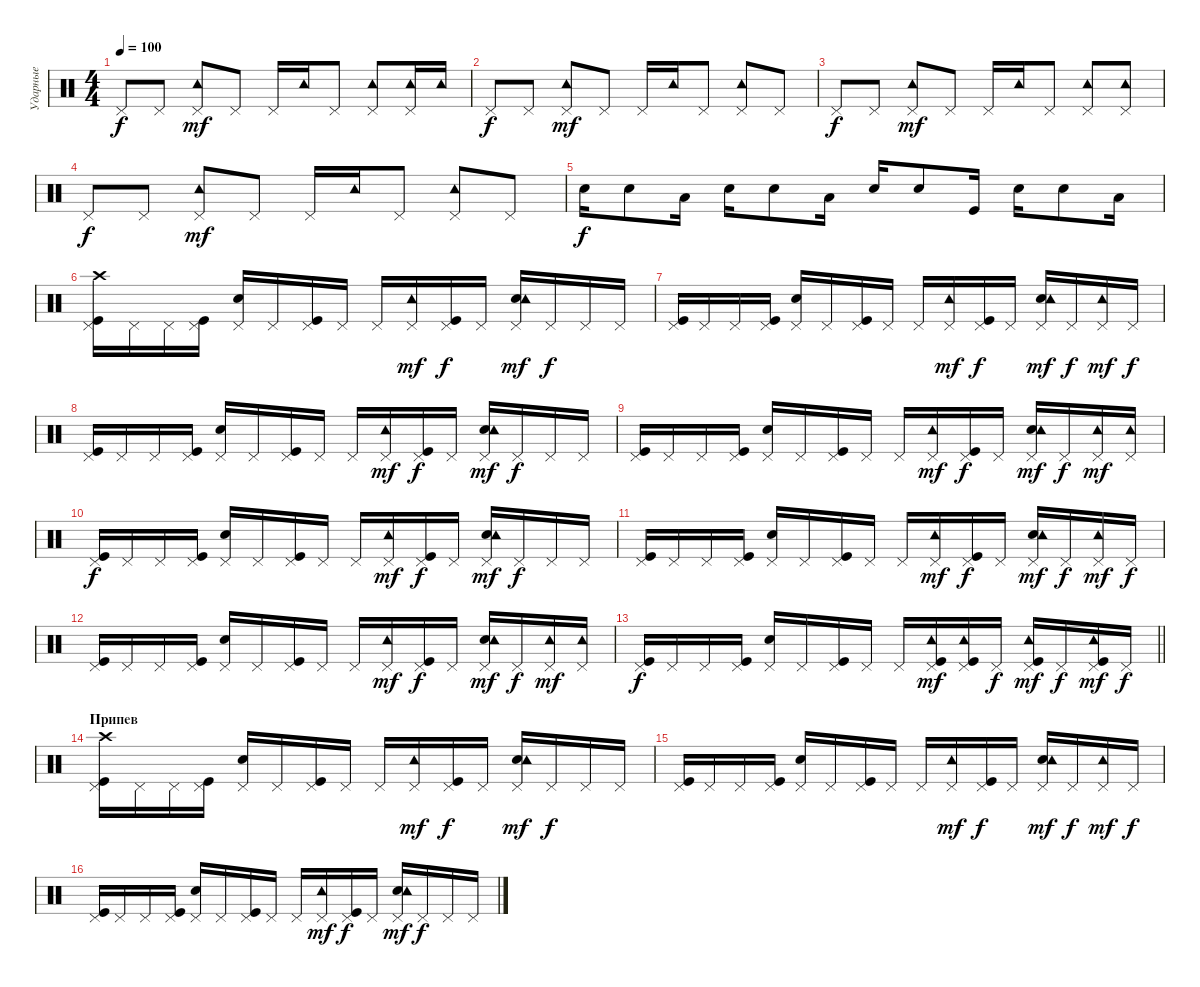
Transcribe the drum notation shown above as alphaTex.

\track ("Ударные" "Ударные") {instrument percussion}
\staff {score}
\articulation defaults
\ts (4 4)
\tempo 100
\clef neutral
\ks c "Pedal Hi-Hat (hit)".8{dy f} "Pedal Hi-Hat (hit)".8
("Tambourine (hit)" "Pedal Hi-Hat (hit)").8{dy mf} "Pedal Hi-Hat (hit)".8 "Pedal Hi-Hat (hit)".16 "Tambourine (hit)".16 "Pedal Hi-Hat (hit)".8 ("Tambourine (hit)" "Pedal Hi-Hat (hit)").8 ("Tambourine (hit)" "Pedal Hi-Hat (hit)").16 "Tambourine (hit)".16 |
"Pedal Hi-Hat (hit)".8{dy f} "Pedal Hi-Hat (hit)".8 ("Tambourine (hit)" "Pedal Hi-Hat (hit)").8{dy mf} "Pedal Hi-Hat (hit)".8 "Pedal Hi-Hat (hit)".16 "Tambourine (hit)".16 "Pedal Hi-Hat (hit)".8 ("Tambourine (hit)" "Pedal Hi-Hat (hit)").8 "Pedal Hi-Hat (hit)".8 |
"Pedal Hi-Hat (hit)".8{dy f} "Pedal Hi-Hat (hit)".8 ("Tambourine (hit)" "Pedal Hi-Hat (hit)").8{dy mf} "Pedal Hi-Hat (hit)".8 "Pedal Hi-Hat (hit)".16 "Tambourine (hit)".16 "Pedal Hi-Hat (hit)".8 ("Tambourine (hit)" "Pedal Hi-Hat (hit)").8 ("Tambourine (hit)" "Pedal Hi-Hat (hit)").8 |
"Pedal Hi-Hat (hit)".8{dy f} "Pedal Hi-Hat (hit)".8 ("Tambourine (hit)" "Pedal Hi-Hat (hit)").8{dy mf} "Pedal Hi-Hat (hit)".8 "Pedal Hi-Hat (hit)".16 "Tambourine (hit)".16 "Pedal Hi-Hat (hit)".8 ("Tambourine (hit)" "Pedal Hi-Hat (hit)").8 "Pedal Hi-Hat (hit)".8 |
"Electric Snare (hit)".16{dy f} "Electric Snare (hit)".8 "Low Tom (hit)".16 "Electric Snare (hit)".16 "Electric Snare (hit)".8 "Low Tom (hit)".16 "Electric Snare (hit)".16 "Electric Snare (hit)".8 "Kick (hit)".16 "Electric Snare (hit)".16 "Electric Snare (hit)".8 "Low Tom (hit)".16 |
("Kick (hit)" "Pedal Hi-Hat (hit)" "Crash high (hit)").16 "Pedal Hi-Hat (hit)".16 "Pedal Hi-Hat (hit)".16 ("Kick (hit)" "Pedal Hi-Hat (hit)").16 ("Pedal Hi-Hat (hit)" "Electric Snare (hit)").16 "Pedal Hi-Hat (hit)".16 ("Kick (hit)" "Pedal Hi-Hat (hit)").16 "Pedal Hi-Hat (hit)".16 "Pedal Hi-Hat (hit)".16 ("Pedal Hi-Hat (hit)" "Tambourine (hit)").16{dy mf} ("Kick (hit)" "Pedal Hi-Hat (hit)").16{dy f} "Pedal Hi-Hat (hit)".16 ("Pedal Hi-Hat (hit)" "Electric Snare (hit)" "Tambourine (hit)").16{dy mf} "Pedal Hi-Hat (hit)".16{dy f} "Pedal Hi-Hat (hit)".16 "Pedal Hi-Hat (hit)".16 |
("Kick (hit)" "Pedal Hi-Hat (hit)").16 "Pedal Hi-Hat (hit)".16 "Pedal Hi-Hat (hit)".16 ("Kick (hit)" "Pedal Hi-Hat (hit)").16 ("Pedal Hi-Hat (hit)" "Electric Snare (hit)").16 "Pedal Hi-Hat (hit)".16 ("Kick (hit)" "Pedal Hi-Hat (hit)").16 "Pedal Hi-Hat (hit)".16 "Pedal Hi-Hat (hit)".16 ("Pedal Hi-Hat (hit)" "Tambourine (hit)").16{dy mf} ("Kick (hit)" "Pedal Hi-Hat (hit)").16{dy f} "Pedal Hi-Hat (hit)".16 ("Pedal Hi-Hat (hit)" "Electric Snare (hit)" "Tambourine (hit)").16{dy mf} "Pedal Hi-Hat (hit)".16{dy f} ("Pedal Hi-Hat (hit)" "Tambourine (hit)").16{dy mf} "Pedal Hi-Hat (hit)".16{dy f} |
("Kick (hit)" "Pedal Hi-Hat (hit)").16 "Pedal Hi-Hat (hit)".16 "Pedal Hi-Hat (hit)".16 ("Kick (hit)" "Pedal Hi-Hat (hit)").16 ("Pedal Hi-Hat (hit)" "Electric Snare (hit)").16 "Pedal Hi-Hat (hit)".16 ("Kick (hit)" "Pedal Hi-Hat (hit)").16 "Pedal Hi-Hat (hit)".16 "Pedal Hi-Hat (hit)".16 ("Pedal Hi-Hat (hit)" "Tambourine (hit)").16{dy mf} ("Kick (hit)" "Pedal Hi-Hat (hit)").16{dy f} "Pedal Hi-Hat (hit)".16 ("Pedal Hi-Hat (hit)" "Electric Snare (hit)" "Tambourine (hit)").16{dy mf} "Pedal Hi-Hat (hit)".16{dy f} "Pedal Hi-Hat (hit)".16 "Pedal Hi-Hat (hit)".16 |
("Kick (hit)" "Pedal Hi-Hat (hit)").16 "Pedal Hi-Hat (hit)".16 "Pedal Hi-Hat (hit)".16 ("Kick (hit)" "Pedal Hi-Hat (hit)").16 ("Pedal Hi-Hat (hit)" "Electric Snare (hit)").16 "Pedal Hi-Hat (hit)".16 ("Kick (hit)" "Pedal Hi-Hat (hit)").16 "Pedal Hi-Hat (hit)".16 "Pedal Hi-Hat (hit)".16 ("Pedal Hi-Hat (hit)" "Tambourine (hit)").16{dy mf} ("Kick (hit)" "Pedal Hi-Hat (hit)").16{dy f} "Pedal Hi-Hat (hit)".16 ("Pedal Hi-Hat (hit)" "Electric Snare (hit)" "Tambourine (hit)").16{dy mf} "Pedal Hi-Hat (hit)".16{dy f} ("Pedal Hi-Hat (hit)" "Tambourine (hit)").16{dy mf} ("Pedal Hi-Hat (hit)" "Tambourine (hit)").16 |
("Kick (hit)" "Pedal Hi-Hat (hit)").16{dy f} "Pedal Hi-Hat (hit)".16 "Pedal Hi-Hat (hit)".16 ("Kick (hit)" "Pedal Hi-Hat (hit)").16 ("Pedal Hi-Hat (hit)" "Electric Snare (hit)").16 "Pedal Hi-Hat (hit)".16 ("Kick (hit)" "Pedal Hi-Hat (hit)").16 "Pedal Hi-Hat (hit)".16 "Pedal Hi-Hat (hit)".16 ("Pedal Hi-Hat (hit)" "Tambourine (hit)").16{dy mf} ("Kick (hit)" "Pedal Hi-Hat (hit)").16{dy f} "Pedal Hi-Hat (hit)".16 ("Pedal Hi-Hat (hit)" "Electric Snare (hit)" "Tambourine (hit)").16{dy mf} "Pedal Hi-Hat (hit)".16{dy f} "Pedal Hi-Hat (hit)".16 "Pedal Hi-Hat (hit)".16 |
("Kick (hit)" "Pedal Hi-Hat (hit)").16 "Pedal Hi-Hat (hit)".16 "Pedal Hi-Hat (hit)".16 ("Kick (hit)" "Pedal Hi-Hat (hit)").16 ("Pedal Hi-Hat (hit)" "Electric Snare (hit)").16 "Pedal Hi-Hat (hit)".16 ("Kick (hit)" "Pedal Hi-Hat (hit)").16 "Pedal Hi-Hat (hit)".16 "Pedal Hi-Hat (hit)".16 ("Pedal Hi-Hat (hit)" "Tambourine (hit)").16{dy mf} ("Kick (hit)" "Pedal Hi-Hat (hit)").16{dy f} "Pedal Hi-Hat (hit)".16 ("Pedal Hi-Hat (hit)" "Electric Snare (hit)" "Tambourine (hit)").16{dy mf} "Pedal Hi-Hat (hit)".16{dy f} ("Pedal Hi-Hat (hit)" "Tambourine (hit)").16{dy mf} "Pedal Hi-Hat (hit)".16{dy f} |
("Kick (hit)" "Pedal Hi-Hat (hit)").16 "Pedal Hi-Hat (hit)".16 "Pedal Hi-Hat (hit)".16 ("Kick (hit)" "Pedal Hi-Hat (hit)").16 ("Pedal Hi-Hat (hit)" "Electric Snare (hit)").16 "Pedal Hi-Hat (hit)".16 ("Kick (hit)" "Pedal Hi-Hat (hit)").16 "Pedal Hi-Hat (hit)".16 "Pedal Hi-Hat (hit)".16 ("Pedal Hi-Hat (hit)" "Tambourine (hit)").16{dy mf} ("Kick (hit)" "Pedal Hi-Hat (hit)").16{dy f} "Pedal Hi-Hat (hit)".16 ("Pedal Hi-Hat (hit)" "Electric Snare (hit)" "Tambourine (hit)").16{dy mf} "Pedal Hi-Hat (hit)".16{dy f} ("Pedal Hi-Hat (hit)" "Tambourine (hit)").16{dy mf} ("Pedal Hi-Hat (hit)" "Tambourine (hit)").16 |
\barLineRight lightlight
("Kick (hit)" "Pedal Hi-Hat (hit)").16{dy f} "Pedal Hi-Hat (hit)".16 "Pedal Hi-Hat (hit)".16 ("Kick (hit)" "Pedal Hi-Hat (hit)").16 ("Pedal Hi-Hat (hit)" "Electric Snare (hit)").16 "Pedal Hi-Hat (hit)".16 ("Kick (hit)" "Pedal Hi-Hat (hit)").16 "Pedal Hi-Hat (hit)".16 "Pedal Hi-Hat (hit)".16 ("Kick (hit)" "Pedal Hi-Hat (hit)" "Tambourine (hit)").16{dy mf} ("Kick (hit)" "Pedal Hi-Hat (hit)" "Tambourine (hit)").16 "Pedal Hi-Hat (hit)".16{dy f} ("Kick (hit)" "Pedal Hi-Hat (hit)" "Tambourine (hit)").16{dy mf} "Pedal Hi-Hat (hit)".16{dy f} ("Kick (hit)" "Pedal Hi-Hat (hit)" "Tambourine (hit)").16{dy mf} "Pedal Hi-Hat (hit)".16{dy f} |
\section ("" "Припев")
("Kick (hit)" "Pedal Hi-Hat (hit)" "Crash high (hit)").16 "Pedal Hi-Hat (hit)".16 "Pedal Hi-Hat (hit)".16 ("Kick (hit)" "Pedal Hi-Hat (hit)").16 ("Pedal Hi-Hat (hit)" "Electric Snare (hit)").16 "Pedal Hi-Hat (hit)".16 ("Kick (hit)" "Pedal Hi-Hat (hit)").16 "Pedal Hi-Hat (hit)".16 "Pedal Hi-Hat (hit)".16 ("Pedal Hi-Hat (hit)" "Tambourine (hit)").16{dy mf} ("Kick (hit)" "Pedal Hi-Hat (hit)").16{dy f} "Pedal Hi-Hat (hit)".16 ("Pedal Hi-Hat (hit)" "Electric Snare (hit)" "Tambourine (hit)").16{dy mf} "Pedal Hi-Hat (hit)".16{dy f} "Pedal Hi-Hat (hit)".16 "Pedal Hi-Hat (hit)".16 |
("Kick (hit)" "Pedal Hi-Hat (hit)").16 "Pedal Hi-Hat (hit)".16 "Pedal Hi-Hat (hit)".16 ("Kick (hit)" "Pedal Hi-Hat (hit)").16 ("Pedal Hi-Hat (hit)" "Electric Snare (hit)").16 "Pedal Hi-Hat (hit)".16 ("Kick (hit)" "Pedal Hi-Hat (hit)").16 "Pedal Hi-Hat (hit)".16 "Pedal Hi-Hat (hit)".16 ("Pedal Hi-Hat (hit)" "Tambourine (hit)").16{dy mf} ("Kick (hit)" "Pedal Hi-Hat (hit)").16{dy f} "Pedal Hi-Hat (hit)".16 ("Pedal Hi-Hat (hit)" "Electric Snare (hit)" "Tambourine (hit)").16{dy mf} "Pedal Hi-Hat (hit)".16{dy f} ("Pedal Hi-Hat (hit)" "Tambourine (hit)").16{dy mf} "Pedal Hi-Hat (hit)".16{dy f} |
("Kick (hit)" "Pedal Hi-Hat (hit)").16 "Pedal Hi-Hat (hit)".16 "Pedal Hi-Hat (hit)".16 ("Kick (hit)" "Pedal Hi-Hat (hit)").16 ("Pedal Hi-Hat (hit)" "Electric Snare (hit)").16 "Pedal Hi-Hat (hit)".16 ("Kick (hit)" "Pedal Hi-Hat (hit)").16 "Pedal Hi-Hat (hit)".16 "Pedal Hi-Hat (hit)".16 ("Pedal Hi-Hat (hit)" "Tambourine (hit)").16{dy mf} ("Kick (hit)" "Pedal Hi-Hat (hit)").16{dy f} "Pedal Hi-Hat (hit)".16 ("Pedal Hi-Hat (hit)" "Electric Snare (hit)" "Tambourine (hit)").16{dy mf} "Pedal Hi-Hat (hit)".16{dy f} "Pedal Hi-Hat (hit)".16 "Pedal Hi-Hat (hit)".16
